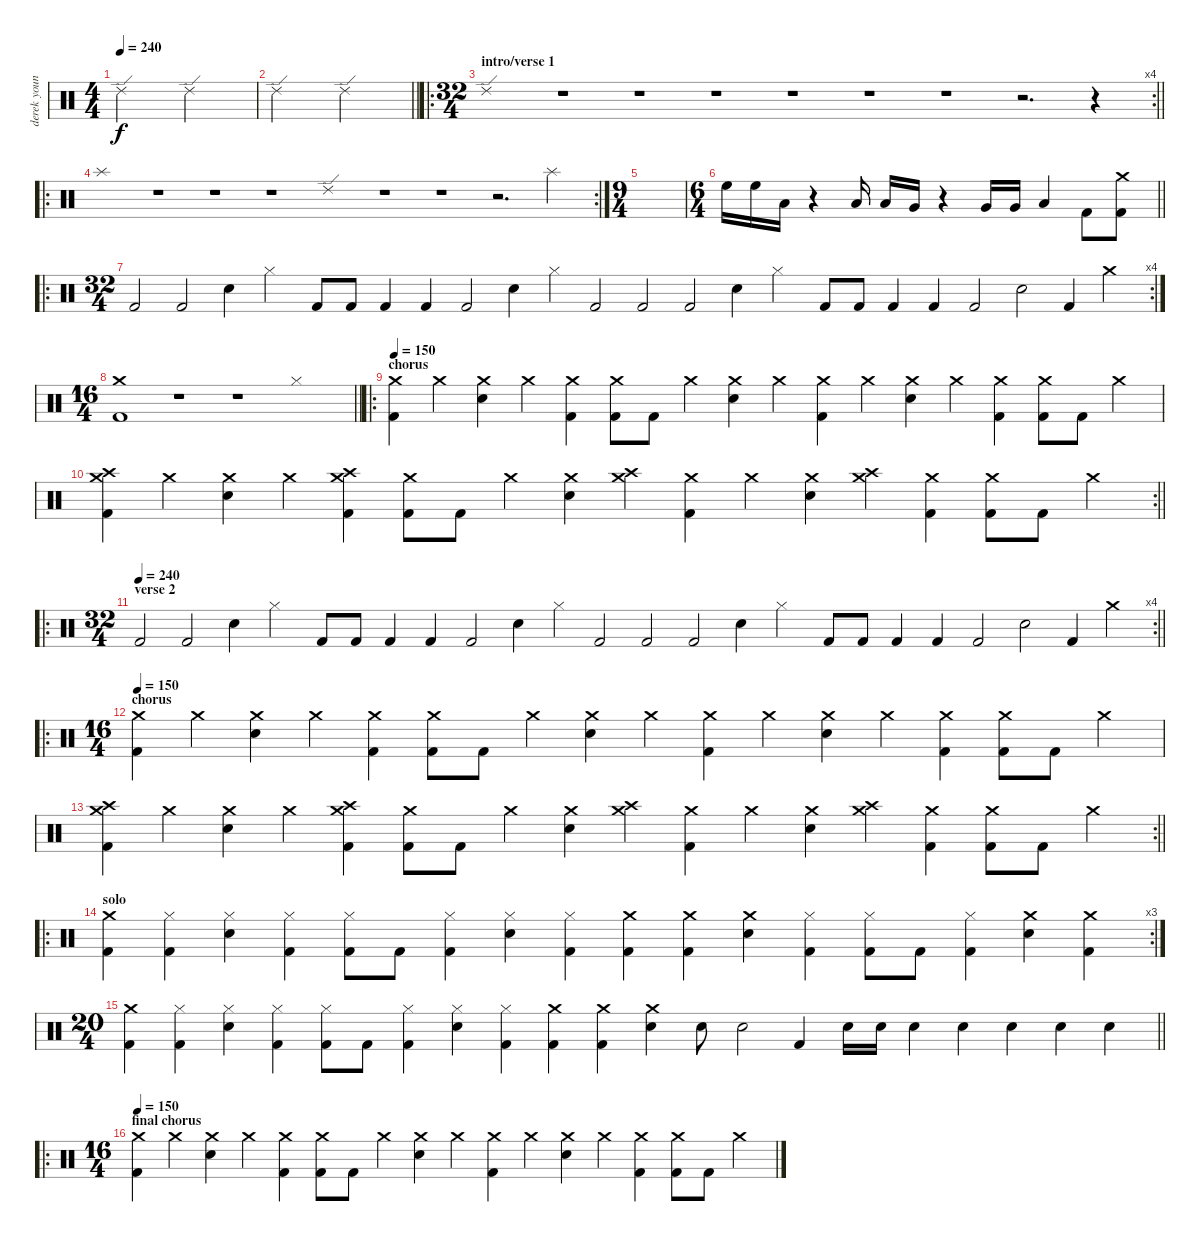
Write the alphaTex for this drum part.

\track ("derek youngsman" "derek youn") {instrument percussion}
\staff {score}
\articulation defaults
\ts (4 4)
\tempo 240
\clef neutral
\ks c "Ride (edge) 2".2{dy f} "Ride (edge) 2".2
|
\barLineRight lightlight "Ride (edge) 2".2 "Ride (edge) 2".2
|
\ro
\rc 4
\ts (32 4)
\section ("" "intro/verse 1")
\barLineRight lightlight "Ride (edge) 2".1
r.1 r.1 r.1 r.1 r.1 r.1 r.2{d} r.4 |
\ro
\rc 2 "Splash (hit)".1
r.1 r.1 r.1 "Ride (edge) 2".1 r.1 r.1 r.2{d} "Splash (hit)".4 |
\ts (9 4)
|
\ts (6 4)
\barLineRight lightlight "High Floor Tom (hit)".16 "High Floor Tom (hit)".16 "Low Tom (hit)".16
r.4 "Low Tom (hit)".16 "Low Tom (hit)".16 "Very Low Tom (hit)".16 r.4 "Very Low Tom (hit)".16 "Very Low Tom (hit)".16 "Low Floor Tom (hit)".4 "Kick (hit) 2".8 ("Crash medium (hit)" "Kick (hit) 2").8 |
\ro
\rc 4
\ts (32 4)
\section ("" "")
"Kick (hit) 2".2 "Kick (hit) 2".2 "Snare (hit) 2".4 "Hi-Hat (closed)".2 "Kick (hit) 2".8 "Kick (hit) 2".8 "Kick (hit) 2".4 "Kick (hit) 2".4 "Kick (hit) 2".2 "Snare (hit) 2".4 "Hi-Hat (closed)".4 "Kick (hit) 2".2 "Kick (hit) 2".2 "Kick (hit) 2".2 "Snare (hit) 2".4 "Hi-Hat (closed)".2 "Kick (hit) 2".8 "Kick (hit) 2".8 "Kick (hit) 2".4 "Kick (hit) 2".4 "Kick (hit) 2".2 "Snare (hit) 2".2 "Kick (hit) 2".4 "Crash medium (hit)".4 |
\ts (16 4)
\barLineRight lightlight
("Crash medium (hit)" "Kick (hit) 2").1 r.1 r.1 "Hi-Hat (closed)".1 |
\ro
\section ("" "chorus")
\tempo 150
("Crash medium (hit)" "Kick (hit) 2").4 "Crash medium (hit)".4 ("Crash medium (hit)" "Snare (hit) 2").4 "Crash medium (hit)".4 ("Crash medium (hit)" "Kick (hit) 2").4 ("Crash medium (hit)" "Kick (hit) 2").8 "Kick (hit) 2".8 "Crash medium (hit)".4 ("Crash medium (hit)" "Snare (hit) 2").4 "Crash medium (hit)".4 ("Crash medium (hit)" "Kick (hit) 2").4 "Crash medium (hit)".4 ("Crash medium (hit)" "Snare (hit) 2").4 "Crash medium (hit)".4 ("Crash medium (hit)" "Kick (hit) 2").4 ("Crash medium (hit)" "Kick (hit) 2").8 "Kick (hit) 2".8 "Crash medium (hit)".4 |
\rc 2
\barLineRight lightlight
("Crash medium (hit)" "Crash high (hit)" "Kick (hit) 2").4 "Crash medium (hit)".4 ("Crash medium (hit)" "Snare (hit) 2").4 "Crash medium (hit)".4 ("Crash medium (hit)" "Crash high (hit)" "Kick (hit) 2").4 ("Crash medium (hit)" "Kick (hit) 2").8 "Kick (hit) 2".8 "Crash medium (hit)".4 ("Crash medium (hit)" "Snare (hit) 2").4 ("Crash medium (hit)" "Crash high (hit)").4 ("Crash medium (hit)" "Kick (hit) 2").4 "Crash medium (hit)".4 ("Crash medium (hit)" "Snare (hit) 2").4 ("Crash medium (hit)" "Crash high (hit)").4 ("Crash medium (hit)" "Kick (hit) 2").4 ("Crash medium (hit)" "Kick (hit) 2").8 "Kick (hit) 2".8 "Crash medium (hit)".4 |
\ro
\rc 4
\ts (32 4)
\section ("" "verse 2")
\tempo 240
\barLineRight lightlight "Kick (hit) 2".2 "Kick (hit) 2".2 "Snare (hit) 2".4 "Hi-Hat (closed)".2 "Kick (hit) 2".8 "Kick (hit) 2".8 "Kick (hit) 2".4 "Kick (hit) 2".4 "Kick (hit) 2".2 "Snare (hit) 2".4 "Hi-Hat (closed)".4 "Kick (hit) 2".2 "Kick (hit) 2".2 "Kick (hit) 2".2 "Snare (hit) 2".4 "Hi-Hat (closed)".2 "Kick (hit) 2".8 "Kick (hit) 2".8 "Kick (hit) 2".4 "Kick (hit) 2".4 "Kick (hit) 2".2 "Snare (hit) 2".2 "Kick (hit) 2".4 "Crash medium (hit)".4
|
\ro
\ts (16 4)
\section ("" "chorus")
\tempo 150
("Crash medium (hit)" "Kick (hit) 2").4 "Crash medium (hit)".4 ("Crash medium (hit)" "Snare (hit) 2").4 "Crash medium (hit)".4 ("Crash medium (hit)" "Kick (hit) 2").4 ("Crash medium (hit)" "Kick (hit) 2").8 "Kick (hit) 2".8 "Crash medium (hit)".4 ("Crash medium (hit)" "Snare (hit) 2").4 "Crash medium (hit)".4 ("Crash medium (hit)" "Kick (hit) 2").4 "Crash medium (hit)".4 ("Crash medium (hit)" "Snare (hit) 2").4 "Crash medium (hit)".4 ("Crash medium (hit)" "Kick (hit) 2").4 ("Crash medium (hit)" "Kick (hit) 2").8 "Kick (hit) 2".8 "Crash medium (hit)".4 |
\rc 2
\barLineRight lightlight
("Crash medium (hit)" "Crash high (hit)" "Kick (hit) 2").4 "Crash medium (hit)".4 ("Crash medium (hit)" "Snare (hit) 2").4 "Crash medium (hit)".4 ("Crash medium (hit)" "Crash high (hit)" "Kick (hit) 2").4 ("Crash medium (hit)" "Kick (hit) 2").8 "Kick (hit) 2".8 "Crash medium (hit)".4 ("Crash medium (hit)" "Snare (hit) 2").4 ("Crash medium (hit)" "Crash high (hit)").4 ("Crash medium (hit)" "Kick (hit) 2").4 "Crash medium (hit)".4 ("Crash medium (hit)" "Snare (hit) 2").4 ("Crash medium (hit)" "Crash high (hit)").4 ("Crash medium (hit)" "Kick (hit) 2").4 ("Crash medium (hit)" "Kick (hit) 2").8 "Kick (hit) 2".8 "Crash medium (hit)".4 |
\ro
\rc 3
\section ("" "solo")
("Crash medium (hit)" "Kick (hit) 2").4 ("Hi-Hat (closed)" "Kick (hit) 2").4 ("Hi-Hat (closed)" "Snare (hit) 2").4 ("Hi-Hat (closed)" "Kick (hit) 2").4 ("Hi-Hat (closed)" "Kick (hit) 2").8 "Kick (hit) 2".8 ("Hi-Hat (closed)" "Kick (hit) 2").4 ("Hi-Hat (closed)" "Snare (hit) 2").4 ("Hi-Hat (closed)" "Kick (hit) 2").4 ("Crash medium (hit)" "Kick (hit) 2").4 ("Crash medium (hit)" "Kick (hit) 2").4 ("Crash medium (hit)" "Snare (hit) 2").4 ("Hi-Hat (closed)" "Kick (hit) 2").4 ("Hi-Hat (closed)" "Kick (hit) 2").8 "Kick (hit) 2".8 ("Hi-Hat (closed)" "Kick (hit) 2").4 ("Crash medium (hit)" "Snare (hit) 2").4 ("Crash medium (hit)" "Kick (hit) 2").4 |
\ts (20 4)
\barLineRight lightlight
("Crash medium (hit)" "Kick (hit) 2").4 ("Hi-Hat (closed)" "Kick (hit) 2").4 ("Hi-Hat (closed)" "Snare (hit) 2").4 ("Hi-Hat (closed)" "Kick (hit) 2").4 ("Hi-Hat (closed)" "Kick (hit) 2").8 "Kick (hit) 2".8 ("Hi-Hat (closed)" "Kick (hit) 2").4 ("Hi-Hat (closed)" "Snare (hit) 2").4 ("Hi-Hat (closed)" "Kick (hit) 2").4 ("Crash medium (hit)" "Kick (hit) 2").4 ("Crash medium (hit)" "Kick (hit) 2").4 ("Crash medium (hit)" "Snare (hit) 2").4 "Snare (hit) 2".8 "Snare (hit) 2".2 "Kick (hit) 2".4 "Snare (hit) 2".16 "Snare (hit) 2".16 "Snare (hit) 2".4 "Snare (hit) 2".4 "Snare (hit) 2".4 "Snare (hit) 2".4 "Snare (hit) 2".4 |
\ro
\ts (16 4)
\section ("" "final chorus")
\tempo 150
("Crash medium (hit)" "Kick (hit) 2").4 "Crash medium (hit)".4 ("Crash medium (hit)" "Snare (hit) 2").4 "Crash medium (hit)".4 ("Crash medium (hit)" "Kick (hit) 2").4 ("Crash medium (hit)" "Kick (hit) 2").8 "Kick (hit) 2".8 "Crash medium (hit)".4 ("Crash medium (hit)" "Snare (hit) 2").4 "Crash medium (hit)".4 ("Crash medium (hit)" "Kick (hit) 2").4 "Crash medium (hit)".4 ("Crash medium (hit)" "Snare (hit) 2").4 "Crash medium (hit)".4 ("Crash medium (hit)" "Kick (hit) 2").4 ("Crash medium (hit)" "Kick (hit) 2").8 "Kick (hit) 2".8 "Crash medium (hit)".4
